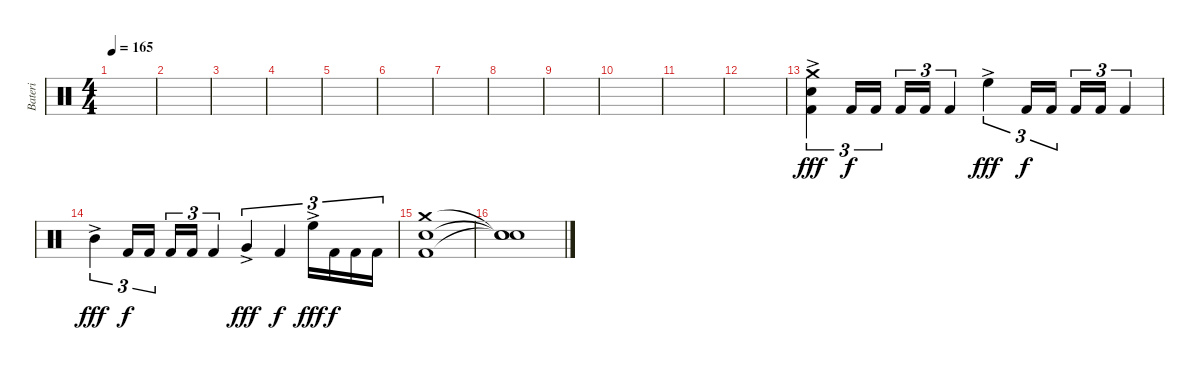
\track ("Bateri" "Bateri") {instrument percussion}
\staff {score}
\articulation defaults
\ts (4 4)
\tempo 165
\clef neutral
\ks c
|
|
|
|
|
|
|
|
|
|
|
|
("Crash medium (hit)"{ac} "Snare (hit) 2"{ac} "Kick (hit) 2"{ac}).4{tu (3 2) dy fff} "Kick (hit) 2".16{tu (3 2) dy f} "Kick (hit) 2".16{tu (3 2)} "Kick (hit) 2".16{tu (3 2)} "Kick (hit) 2".16{tu (3 2)} "Kick (hit) 2".4{tu (3 2)} "High Floor Tom (hit)"{ac}.4{tu (3 2) dy fff} "Kick (hit) 2".16{tu (3 2) dy f} "Kick (hit) 2".16{tu (3 2)} "Kick (hit) 2".16{tu (3 2)} "Kick (hit) 2".16{tu (3 2)} "Kick (hit) 2".4{tu (3 2)} |
"Mid Tom (hit)"{ac}.4{tu (3 2) dy fff} "Kick (hit) 2".16{tu (3 2) dy f} "Kick (hit) 2".16{tu (3 2)} "Kick (hit) 2".16{tu (3 2)} "Kick (hit) 2".16{tu (3 2)} "Kick (hit) 2".4{tu (3 2)} "Very Low Tom (hit)"{ac}.4{tu (3 2) dy fff} "Kick (hit) 2".4{tu (3 2) dy f} "High Floor Tom (hit)"{ac}.16{tu (3 2) dy fff} "Kick (hit) 2".16{tu (3 2) dy f} "Kick (hit) 2".16{tu (3 2)} "Kick (hit) 2".16{tu (3 2)} |
("Crash medium (hit)" "Snare (hit) 2" "Kick (hit) 2").1 |
("Snare (hit)"{t} "Snare (hit)"{t} "Snare (hit)"{t}).1
